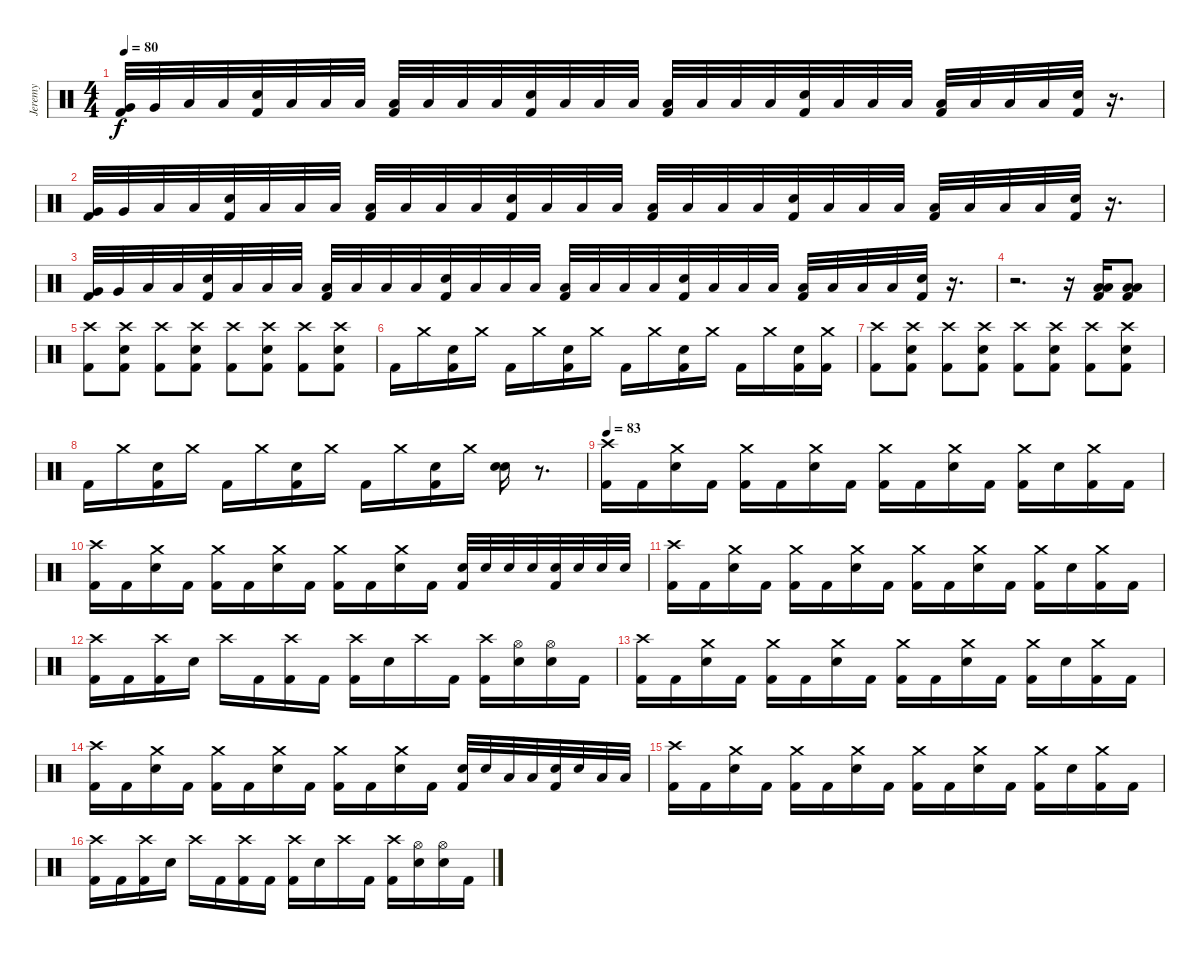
\track ("Jeremy" "Jeremy") {instrument percussion}
\staff {score}
\articulation defaults
\ts (4 4)
\tempo 80
\clef neutral
\ks c
("Very Low Tom (hit)" "Kick (hit) 2").32{dy f} "Very Low Tom (hit)".32 "Low Floor Tom (hit)".32 "Low Floor Tom (hit)".32 ("Electric Snare (hit)" "Kick (hit) 2").32 "Low Floor Tom (hit)".32 "Low Floor Tom (hit)".32 "Low Floor Tom (hit)".32 ("Low Floor Tom (hit)" "Kick (hit) 2").32 "Low Floor Tom (hit)".32 "Low Floor Tom (hit)".32 "Low Floor Tom (hit)".32 ("Electric Snare (hit)" "Kick (hit) 2").32 "Low Floor Tom (hit)".32 "Low Floor Tom (hit)".32 "Low Floor Tom (hit)".32 ("Low Floor Tom (hit)" "Kick (hit) 2").32 "Low Floor Tom (hit)".32 "Low Floor Tom (hit)".32 "Low Floor Tom (hit)".32 ("Electric Snare (hit)" "Kick (hit) 2").32 "Low Floor Tom (hit)".32 "Low Floor Tom (hit)".32 "Low Floor Tom (hit)".32 ("Low Floor Tom (hit)" "Kick (hit) 2").32 "Low Floor Tom (hit)".32 "Low Floor Tom (hit)".32 "Low Floor Tom (hit)".32 ("Electric Snare (hit)" "Kick (hit) 2").32 r.16{d} |
("Very Low Tom (hit)" "Kick (hit) 2").32 "Very Low Tom (hit)".32 "Low Floor Tom (hit)".32 "Low Floor Tom (hit)".32 ("Electric Snare (hit)" "Kick (hit) 2").32 "Low Floor Tom (hit)".32 "Low Floor Tom (hit)".32 "Low Floor Tom (hit)".32 ("Low Floor Tom (hit)" "Kick (hit) 2").32 "Low Floor Tom (hit)".32 "Low Floor Tom (hit)".32 "Low Floor Tom (hit)".32 ("Electric Snare (hit)" "Kick (hit) 2").32 "Low Floor Tom (hit)".32 "Low Floor Tom (hit)".32 "Low Floor Tom (hit)".32 ("Low Floor Tom (hit)" "Kick (hit) 2").32 "Low Floor Tom (hit)".32 "Low Floor Tom (hit)".32 "Low Floor Tom (hit)".32 ("Electric Snare (hit)" "Kick (hit) 2").32 "Low Floor Tom (hit)".32 "Low Floor Tom (hit)".32 "Low Floor Tom (hit)".32 ("Low Floor Tom (hit)" "Kick (hit) 2").32 "Low Floor Tom (hit)".32 "Low Floor Tom (hit)".32 "Low Floor Tom (hit)".32 ("Electric Snare (hit)" "Kick (hit) 2").32 r.16{d} |
("Very Low Tom (hit)" "Kick (hit) 2").32 "Very Low Tom (hit)".32 "Low Floor Tom (hit)".32 "Low Floor Tom (hit)".32 ("Electric Snare (hit)" "Kick (hit) 2").32 "Low Floor Tom (hit)".32 "Low Floor Tom (hit)".32 "Low Floor Tom (hit)".32 ("Low Floor Tom (hit)" "Kick (hit) 2").32 "Low Floor Tom (hit)".32 "Low Floor Tom (hit)".32 "Low Floor Tom (hit)".32 ("Electric Snare (hit)" "Kick (hit) 2").32 "Low Floor Tom (hit)".32 "Low Floor Tom (hit)".32 "Low Floor Tom (hit)".32 ("Low Floor Tom (hit)" "Kick (hit) 2").32 "Low Floor Tom (hit)".32 "Low Floor Tom (hit)".32 "Low Floor Tom (hit)".32 ("Electric Snare (hit)" "Kick (hit) 2").32 "Low Floor Tom (hit)".32 "Low Floor Tom (hit)".32 "Low Floor Tom (hit)".32 ("Low Floor Tom (hit)" "Kick (hit) 2").32 "Low Floor Tom (hit)".32 "Low Floor Tom (hit)".32 "Low Floor Tom (hit)".32 ("Electric Snare (hit)" "Kick (hit) 2").32 r.16{d} |
r.2{d} r.16 ("Low Tom (hit)" "Low Floor Tom (hit)" "Kick (hit) 2").16 ("Low Tom (hit)" "Low Floor Tom (hit)" "Kick (hit) 2").8 |
("Crash high (hit)" "Kick (hit) 2").8 ("Crash high (hit)" "Electric Snare (hit)" "Kick (hit) 2").8 ("Crash high (hit)" "Kick (hit) 2").8 ("Crash high (hit)" "Electric Snare (hit)" "Kick (hit) 2").8 ("Crash high (hit)" "Kick (hit) 2").8 ("Crash high (hit)" "Electric Snare (hit)" "Kick (hit) 2").8 ("Crash high (hit)" "Kick (hit) 2").8 ("Crash high (hit)" "Electric Snare (hit)" "Kick (hit) 2").8 |
"Kick (hit) 2".16 "Crash medium (hit)".16 ("Electric Snare (hit)" "Kick (hit) 2").16 "Crash medium (hit)".16 "Kick (hit) 2".16 "Crash medium (hit)".16 ("Electric Snare (hit)" "Kick (hit) 2").16 "Crash medium (hit)".16 "Kick (hit) 2".16 "Crash medium (hit)".16 ("Electric Snare (hit)" "Kick (hit) 2").16 "Crash medium (hit)".16 "Kick (hit) 2".16 "Crash medium (hit)".16 ("Electric Snare (hit)" "Kick (hit) 2").16 ("Crash medium (hit)" "Kick (hit) 2").16 |
("Crash high (hit)" "Kick (hit) 2").8 ("Crash high (hit)" "Electric Snare (hit)" "Kick (hit) 2").8 ("Crash high (hit)" "Kick (hit) 2").8 ("Crash high (hit)" "Electric Snare (hit)" "Kick (hit) 2").8 ("Crash high (hit)" "Kick (hit) 2").8 ("Crash high (hit)" "Electric Snare (hit)" "Kick (hit) 2").8 ("Crash high (hit)" "Kick (hit) 2").8 ("Crash high (hit)" "Electric Snare (hit)" "Kick (hit) 2").8 |
"Kick (hit) 2".16 "Crash medium (hit)".16 ("Electric Snare (hit)" "Kick (hit) 2").16 "Crash medium (hit)".16 "Kick (hit) 2".16 "Crash medium (hit)".16 ("Electric Snare (hit)" "Kick (hit) 2").16 "Crash medium (hit)".16 "Kick (hit) 2".16 "Crash medium (hit)".16 ("Electric Snare (hit)" "Kick (hit) 2").16 "Crash medium (hit)".16 ("Electric Snare (hit)" "Electric Snare (hit)").16 r.8{d} |
\tempo 83
("Crash high (hit)" "Kick (hit) 2").16 "Kick (hit) 2".16 ("Crash medium (hit)" "Electric Snare (hit)").16 "Kick (hit) 2".16 ("Crash medium (hit)" "Kick (hit) 2").16 "Kick (hit) 2".16 ("Crash medium (hit)" "Electric Snare (hit)").16 "Kick (hit) 2".16 ("Crash medium (hit)" "Kick (hit) 2").16 "Kick (hit) 2".16 ("Crash medium (hit)" "Electric Snare (hit)").16 "Kick (hit) 2".16 ("Crash medium (hit)" "Kick (hit) 2").16 "Electric Snare (hit)".16 ("Crash medium (hit)" "Kick (hit) 2").16 "Kick (hit) 2".16 |
("Crash high (hit)" "Kick (hit) 2").16 "Kick (hit) 2".16 ("Crash medium (hit)" "Electric Snare (hit)").16 "Kick (hit) 2".16 ("Crash medium (hit)" "Kick (hit) 2").16 "Kick (hit) 2".16 ("Crash medium (hit)" "Electric Snare (hit)").16 "Kick (hit) 2".16 ("Crash medium (hit)" "Kick (hit) 2").16 "Kick (hit) 2".16 ("Crash medium (hit)" "Electric Snare (hit)").16 "Kick (hit) 2".16 ("Electric Snare (hit)" "Kick (hit) 2").32 "Electric Snare (hit)".32 "Electric Snare (hit)".32 "Electric Snare (hit)".32 ("Electric Snare (hit)" "Kick (hit) 2").32 "Electric Snare (hit)".32 "Electric Snare (hit)".32 "Electric Snare (hit)".32 |
("Crash high (hit)" "Kick (hit) 2").16 "Kick (hit) 2".16 ("Crash medium (hit)" "Electric Snare (hit)").16 "Kick (hit) 2".16 ("Crash medium (hit)" "Kick (hit) 2").16 "Kick (hit) 2".16 ("Crash medium (hit)" "Electric Snare (hit)").16 "Kick (hit) 2".16 ("Crash medium (hit)" "Kick (hit) 2").16 "Kick (hit) 2".16 ("Crash medium (hit)" "Electric Snare (hit)").16 "Kick (hit) 2".16 ("Crash medium (hit)" "Kick (hit) 2").16 "Electric Snare (hit)".16 ("Crash medium (hit)" "Kick (hit) 2").16 "Kick (hit) 2".16 |
("Crash high (hit)" "Kick (hit) 2").16 "Kick (hit) 2".16 ("Crash high (hit)" "Kick (hit) 2").16 "Electric Snare (hit)".16 "Crash high (hit)".16 "Kick (hit) 2".16 ("Crash high (hit)" "Kick (hit) 2").16 "Kick (hit) 2".16 ("Crash high (hit)" "Kick (hit) 2").16 "Electric Snare (hit)".16 "Crash high (hit)".16 "Kick (hit) 2".16 ("Crash high (hit)" "Kick (hit) 2").16 ("Hi-Hat (open)" "Electric Snare (hit)").16 ("Hi-Hat (open)" "Electric Snare (hit)").16 "Kick (hit) 2".16 |
("Crash high (hit)" "Kick (hit) 2").16 "Kick (hit) 2".16 ("Crash medium (hit)" "Electric Snare (hit)").16 "Kick (hit) 2".16 ("Crash medium (hit)" "Kick (hit) 2").16 "Kick (hit) 2".16 ("Crash medium (hit)" "Electric Snare (hit)").16 "Kick (hit) 2".16 ("Crash medium (hit)" "Kick (hit) 2").16 "Kick (hit) 2".16 ("Crash medium (hit)" "Electric Snare (hit)").16 "Kick (hit) 2".16 ("Crash medium (hit)" "Kick (hit) 2").16 "Electric Snare (hit)".16 ("Crash medium (hit)" "Kick (hit) 2").16 "Kick (hit) 2".16 |
("Crash high (hit)" "Kick (hit) 2").16 "Kick (hit) 2".16 ("Crash medium (hit)" "Electric Snare (hit)").16 "Kick (hit) 2".16 ("Crash medium (hit)" "Kick (hit) 2").16 "Kick (hit) 2".16 ("Crash medium (hit)" "Electric Snare (hit)").16 "Kick (hit) 2".16 ("Crash medium (hit)" "Kick (hit) 2").16 "Kick (hit) 2".16 ("Crash medium (hit)" "Electric Snare (hit)").16 "Kick (hit) 2".16 ("Electric Snare (hit)" "Kick (hit) 2").32 "Electric Snare (hit)".32 "Low Tom (hit)".32 "Low Tom (hit)".32 ("Electric Snare (hit)" "Kick (hit) 2").32 "Electric Snare (hit)".32 "Low Tom (hit)".32 "Low Tom (hit)".32 |
("Crash high (hit)" "Kick (hit) 2").16 "Kick (hit) 2".16 ("Crash medium (hit)" "Electric Snare (hit)").16 "Kick (hit) 2".16 ("Crash medium (hit)" "Kick (hit) 2").16 "Kick (hit) 2".16 ("Crash medium (hit)" "Electric Snare (hit)").16 "Kick (hit) 2".16 ("Crash medium (hit)" "Kick (hit) 2").16 "Kick (hit) 2".16 ("Crash medium (hit)" "Electric Snare (hit)").16 "Kick (hit) 2".16 ("Crash medium (hit)" "Kick (hit) 2").16 "Electric Snare (hit)".16 ("Crash medium (hit)" "Kick (hit) 2").16 "Kick (hit) 2".16 |
("Crash high (hit)" "Kick (hit) 2").16 "Kick (hit) 2".16 ("Crash high (hit)" "Kick (hit) 2").16 "Electric Snare (hit)".16 "Crash high (hit)".16 "Kick (hit) 2".16 ("Crash high (hit)" "Kick (hit) 2").16 "Kick (hit) 2".16 ("Crash high (hit)" "Kick (hit) 2").16 "Electric Snare (hit)".16 "Crash high (hit)".16 "Kick (hit) 2".16 ("Crash high (hit)" "Kick (hit) 2").16 ("Hi-Hat (open)" "Electric Snare (hit)").16 ("Hi-Hat (open)" "Electric Snare (hit)").16 "Kick (hit) 2".16
